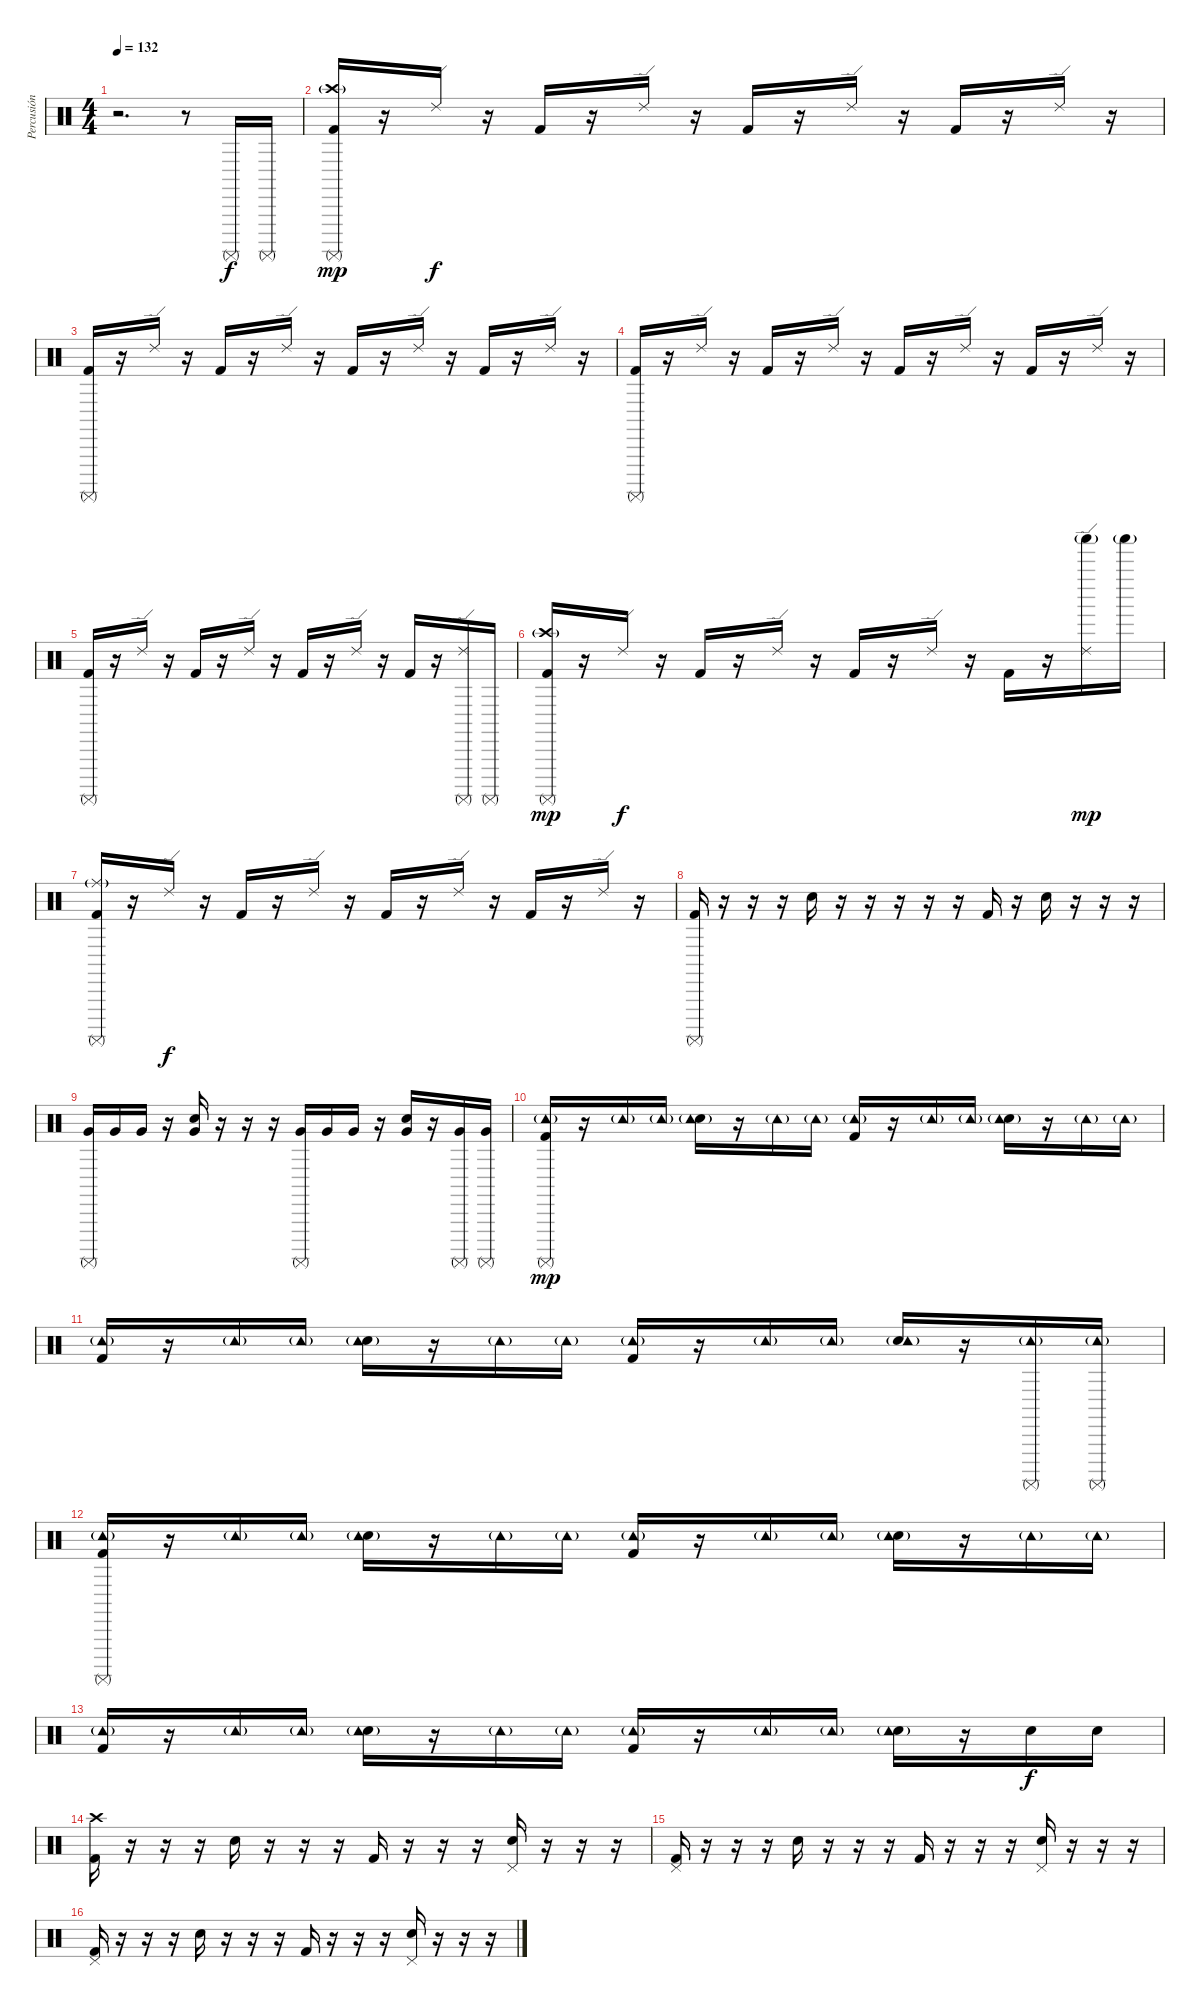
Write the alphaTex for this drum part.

\track ("Percusión" "Percusión") {instrument percussion}
\staff {score}
\articulation defaults
\ts (4 4)
\tempo 132
\clef neutral
\ks c
r.2{d dy f} r.8 "Surdo (mute)".16 "Surdo (mute)".16 |
("Crash high (hit)"{g} "Kick (hit) 2" "Surdo (mute)").16{dy mp} r.16 "Ride (edge) 2".16{dy f} r.16 "Kick (hit) 2".16 r.16 "Ride (edge) 2".16 r.16 "Kick (hit) 2".16 r.16 "Ride (edge) 2".16 r.16 "Kick (hit) 2".16 r.16 "Ride (edge) 2".16 r.16 |
("Kick (hit) 2" "Surdo (mute)").16 r.16 "Ride (edge) 2".16 r.16 "Kick (hit) 2".16 r.16 "Ride (edge) 2".16 r.16 "Kick (hit) 2".16 r.16 "Ride (edge) 2".16 r.16 "Kick (hit) 2".16 r.16 "Ride (edge) 2".16 r.16 |
("Kick (hit) 2" "Surdo (mute)").16 r.16 "Ride (edge) 2".16 r.16 "Kick (hit) 2".16 r.16 "Ride (edge) 2".16 r.16 "Kick (hit) 2".16 r.16 "Ride (edge) 2".16 r.16 "Kick (hit) 2".16 r.16 "Ride (edge) 2".16 r.16 |
("Kick (hit) 2" "Surdo (mute)").16 r.16 "Ride (edge) 2".16 r.16 "Kick (hit) 2".16 r.16 "Ride (edge) 2".16 r.16 "Kick (hit) 2".16 r.16 "Ride (edge) 2".16 r.16 "Kick (hit) 2".16 r.16 ("Ride (edge) 2" "Surdo (mute)").16 "Surdo (mute)".16 |
("Crash high (hit)"{g} "Kick (hit) 2" "Surdo (mute)").16{dy mp} r.16 "Ride (edge) 2".16{dy f} r.16 "Kick (hit) 2".16 r.16 "Ride (edge) 2".16 r.16 "Kick (hit) 2".16 r.16 "Ride (edge) 2".16 r.16 "Kick (hit) 2".16 r.16 ("Ride (edge) 2" "Shaker (hit)"{g}).16{dy mp} "Shaker (hit)"{g}.16 |
("Kick (hit) 2" "Surdo (mute)" "Ride (middle)"{g}).16 r.16 "Ride (edge) 2".16{dy f} r.16 "Kick (hit) 2".16 r.16 "Ride (edge) 2".16 r.16 "Kick (hit) 2".16 r.16 "Ride (edge) 2".16 r.16 "Kick (hit) 2".16 r.16 "Ride (edge) 2".16 r.16 |
("Kick (hit) 2" "Surdo (mute)").16 r.16 r.16 r.16 "Electric Snare (hit)".16 r.16 r.16 r.16 r.16 r.16 "Kick (hit) 2".16 r.16 "Electric Snare (hit)".16 r.16 r.16 r.16 |
("Very Low Tom (hit)" "Surdo (mute)").16 "Very Low Tom (hit)".16 "Very Low Tom (hit)".16 r.16 ("Very Low Tom (hit)" "Electric Snare (hit)").16 r.16 r.16 r.16 ("Very Low Tom (hit)" "Surdo (mute)").16 "Very Low Tom (hit)".16 "Very Low Tom (hit)".16 r.16 ("Very Low Tom (hit)" "Electric Snare (hit)").16 r.16 ("Very Low Tom (hit)" "Surdo (mute)").16 ("Very Low Tom (hit)" "Surdo (mute)").16 |
("Kick (hit) 2" "Surdo (mute)" "Tambourine (hit)"{g}).16{dy mp} r.16 "Tambourine (hit)"{g}.16 "Tambourine (hit)"{g}.16 ("Electric Snare (hit)" "Tambourine (hit)"{g}).16 r.16 "Tambourine (hit)"{g}.16 "Tambourine (hit)"{g}.16 ("Kick (hit) 2" "Tambourine (hit)"{g}).16 r.16 "Tambourine (hit)"{g}.16 "Tambourine (hit)"{g}.16 ("Electric Snare (hit)" "Tambourine (hit)"{g}).16 r.16 "Tambourine (hit)"{g}.16 "Tambourine (hit)"{g}.16 |
("Kick (hit) 2" "Tambourine (hit)"{g}).16 r.16 "Tambourine (hit)"{g}.16 "Tambourine (hit)"{g}.16 ("Electric Snare (hit)" "Tambourine (hit)"{g}).16 r.16 "Tambourine (hit)"{g}.16 "Tambourine (hit)"{g}.16 ("Kick (hit) 2" "Tambourine (hit)"{g}).16 r.16 "Tambourine (hit)"{g}.16 "Tambourine (hit)"{g}.16 ("Electric Snare (hit)" "Tambourine (hit)"{g}).16 r.16 ("Surdo (mute)" "Tambourine (hit)"{g}).16 ("Surdo (mute)" "Tambourine (hit)"{g}).16 |
("Kick (hit) 2" "Surdo (mute)" "Tambourine (hit)"{g}).16 r.16 "Tambourine (hit)"{g}.16 "Tambourine (hit)"{g}.16 ("Electric Snare (hit)" "Tambourine (hit)"{g}).16 r.16 "Tambourine (hit)"{g}.16 "Tambourine (hit)"{g}.16 ("Kick (hit) 2" "Tambourine (hit)"{g}).16 r.16 "Tambourine (hit)"{g}.16 "Tambourine (hit)"{g}.16 ("Electric Snare (hit)" "Tambourine (hit)"{g}).16 r.16 "Tambourine (hit)"{g}.16 "Tambourine (hit)"{g}.16 |
("Kick (hit) 2" "Tambourine (hit)"{g}).16 r.16 "Tambourine (hit)"{g}.16 "Tambourine (hit)"{g}.16 ("Electric Snare (hit)" "Tambourine (hit)"{g}).16 r.16 "Tambourine (hit)"{g}.16 "Tambourine (hit)"{g}.16 ("Kick (hit) 2" "Tambourine (hit)"{g}).16 r.16 "Tambourine (hit)"{g}.16 "Tambourine (hit)"{g}.16 ("Electric Snare (hit)" "Tambourine (hit)"{g}).16 r.16 "Electric Snare (hit)".16{dy f} "Electric Snare (hit)".16 |
("Kick (hit) 2" "Crash high (hit)").16 r.16 r.16 r.16 "Electric Snare (hit)".16 r.16 r.16 r.16 "Kick (hit) 2".16 r.16 r.16 r.16 ("Pedal Hi-Hat (hit)" "Electric Snare (hit)").16 r.16 r.16 r.16 |
("Pedal Hi-Hat (hit)" "Kick (hit) 2").16 r.16 r.16 r.16 "Electric Snare (hit)".16 r.16 r.16 r.16 "Kick (hit) 2".16 r.16 r.16 r.16 ("Pedal Hi-Hat (hit)" "Electric Snare (hit)").16 r.16 r.16 r.16 |
("Pedal Hi-Hat (hit)" "Kick (hit) 2").16 r.16 r.16 r.16 "Electric Snare (hit)".16 r.16 r.16 r.16 "Kick (hit) 2".16 r.16 r.16 r.16 ("Pedal Hi-Hat (hit)" "Electric Snare (hit)").16 r.16 r.16 r.16
